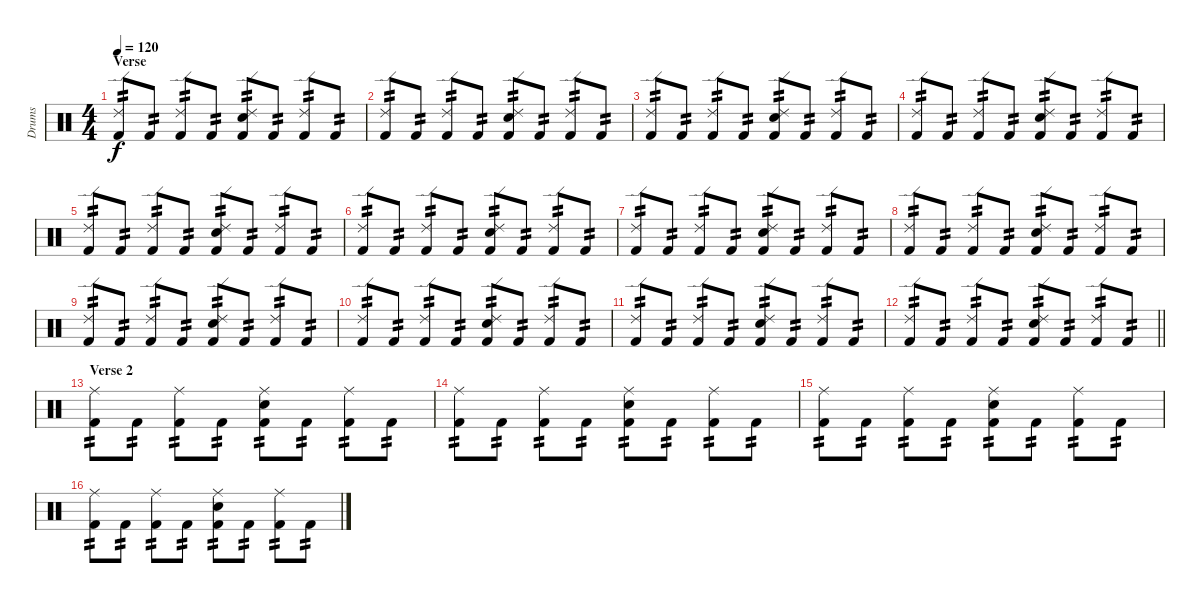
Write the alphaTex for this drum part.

\track ("Drums " "Drums ") {instrument percussion}
\staff {score}
\articulation defaults
\ts (4 4)
\section ("" "Verse")
\tempo 120
\clef neutral
\ks c
("Ride (edge) 2" "Kick (hit) 2").8{tp 2 dy f} "Kick (hit) 2".8{tp 2} ("Ride (edge) 2" "Kick (hit) 2").8{tp 2} "Kick (hit) 2".8{tp 2} ("Snare (hit) 2" "Ride (edge) 2" "Kick (hit) 2").8{tp 2} "Kick (hit) 2".8{tp 2} ("Ride (edge) 2" "Kick (hit) 2").8{tp 2} "Kick (hit) 2".8{tp 2} |
("Ride (edge) 2" "Kick (hit) 2").8{tp 2} "Kick (hit) 2".8{tp 2} ("Ride (edge) 2" "Kick (hit) 2").8{tp 2} "Kick (hit) 2".8{tp 2} ("Snare (hit) 2" "Ride (edge) 2" "Kick (hit) 2").8{tp 2} "Kick (hit) 2".8{tp 2} ("Ride (edge) 2" "Kick (hit) 2").8{tp 2} "Kick (hit) 2".8{tp 2} |
("Ride (edge) 2" "Kick (hit) 2").8{tp 2} "Kick (hit) 2".8{tp 2} ("Ride (edge) 2" "Kick (hit) 2").8{tp 2} "Kick (hit) 2".8{tp 2} ("Snare (hit) 2" "Ride (edge) 2" "Kick (hit) 2").8{tp 2} "Kick (hit) 2".8{tp 2} ("Ride (edge) 2" "Kick (hit) 2").8{tp 2} "Kick (hit) 2".8{tp 2} |
("Ride (edge) 2" "Kick (hit) 2").8{tp 2} "Kick (hit) 2".8{tp 2} ("Ride (edge) 2" "Kick (hit) 2").8{tp 2} "Kick (hit) 2".8{tp 2} ("Snare (hit) 2" "Ride (edge) 2" "Kick (hit) 2").8{tp 2} "Kick (hit) 2".8{tp 2} ("Ride (edge) 2" "Kick (hit) 2").8{tp 2} "Kick (hit) 2".8{tp 2} |
("Ride (edge) 2" "Kick (hit) 2").8{tp 2} "Kick (hit) 2".8{tp 2} ("Ride (edge) 2" "Kick (hit) 2").8{tp 2} "Kick (hit) 2".8{tp 2} ("Snare (hit) 2" "Ride (edge) 2" "Kick (hit) 2").8{tp 2} "Kick (hit) 2".8{tp 2} ("Ride (edge) 2" "Kick (hit) 2").8{tp 2} "Kick (hit) 2".8{tp 2} |
("Ride (edge) 2" "Kick (hit) 2").8{tp 2} "Kick (hit) 2".8{tp 2} ("Ride (edge) 2" "Kick (hit) 2").8{tp 2} "Kick (hit) 2".8{tp 2} ("Snare (hit) 2" "Ride (edge) 2" "Kick (hit) 2").8{tp 2} "Kick (hit) 2".8{tp 2} ("Ride (edge) 2" "Kick (hit) 2").8{tp 2} "Kick (hit) 2".8{tp 2} |
("Ride (edge) 2" "Kick (hit) 2").8{tp 2} "Kick (hit) 2".8{tp 2} ("Ride (edge) 2" "Kick (hit) 2").8{tp 2} "Kick (hit) 2".8{tp 2} ("Snare (hit) 2" "Ride (edge) 2" "Kick (hit) 2").8{tp 2} "Kick (hit) 2".8{tp 2} ("Ride (edge) 2" "Kick (hit) 2").8{tp 2} "Kick (hit) 2".8{tp 2} |
("Ride (edge) 2" "Kick (hit) 2").8{tp 2} "Kick (hit) 2".8{tp 2} ("Ride (edge) 2" "Kick (hit) 2").8{tp 2} "Kick (hit) 2".8{tp 2} ("Snare (hit) 2" "Ride (edge) 2" "Kick (hit) 2").8{tp 2} "Kick (hit) 2".8{tp 2} ("Ride (edge) 2" "Kick (hit) 2").8{tp 2} "Kick (hit) 2".8{tp 2} |
("Ride (edge) 2" "Kick (hit) 2").8{tp 2} "Kick (hit) 2".8{tp 2} ("Ride (edge) 2" "Kick (hit) 2").8{tp 2} "Kick (hit) 2".8{tp 2} ("Snare (hit) 2" "Ride (edge) 2" "Kick (hit) 2").8{tp 2} "Kick (hit) 2".8{tp 2} ("Ride (edge) 2" "Kick (hit) 2").8{tp 2} "Kick (hit) 2".8{tp 2} |
("Ride (edge) 2" "Kick (hit) 2").8{tp 2} "Kick (hit) 2".8{tp 2} ("Ride (edge) 2" "Kick (hit) 2").8{tp 2} "Kick (hit) 2".8{tp 2} ("Snare (hit) 2" "Ride (edge) 2" "Kick (hit) 2").8{tp 2} "Kick (hit) 2".8{tp 2} ("Ride (edge) 2" "Kick (hit) 2").8{tp 2} "Kick (hit) 2".8{tp 2} |
("Ride (edge) 2" "Kick (hit) 2").8{tp 2} "Kick (hit) 2".8{tp 2} ("Ride (edge) 2" "Kick (hit) 2").8{tp 2} "Kick (hit) 2".8{tp 2} ("Snare (hit) 2" "Ride (edge) 2" "Kick (hit) 2").8{tp 2} "Kick (hit) 2".8{tp 2} ("Ride (edge) 2" "Kick (hit) 2").8{tp 2} "Kick (hit) 2".8{tp 2} |
\barLineRight lightlight
("Ride (edge) 2" "Kick (hit) 2").8{tp 2} "Kick (hit) 2".8{tp 2} ("Ride (edge) 2" "Kick (hit) 2").8{tp 2} "Kick (hit) 2".8{tp 2} ("Snare (hit) 2" "Ride (edge) 2" "Kick (hit) 2").8{tp 2} "Kick (hit) 2".8{tp 2} ("Ride (edge) 2" "Kick (hit) 2").8{tp 2} "Kick (hit) 2".8{tp 2} |
\section ("" "Verse 2")
("Ride (middle)" "Kick (hit) 2").8{tp 2} "Kick (hit) 2".8{tp 2} ("Ride (middle)" "Kick (hit) 2").8{tp 2} "Kick (hit) 2".8{tp 2} ("Snare (hit) 2" "Ride (middle)" "Kick (hit) 2").8{tp 2} "Kick (hit) 2".8{tp 2} ("Ride (middle)" "Kick (hit) 2").8{tp 2} "Kick (hit) 2".8{tp 2} |
("Ride (middle)" "Kick (hit) 2").8{tp 2} "Kick (hit) 2".8{tp 2} ("Ride (middle)" "Kick (hit) 2").8{tp 2} "Kick (hit) 2".8{tp 2} ("Snare (hit) 2" "Ride (middle)" "Kick (hit) 2").8{tp 2} "Kick (hit) 2".8{tp 2} ("Ride (middle)" "Kick (hit) 2").8{tp 2} "Kick (hit) 2".8{tp 2} |
("Ride (middle)" "Kick (hit) 2").8{tp 2} "Kick (hit) 2".8{tp 2} ("Ride (middle)" "Kick (hit) 2").8{tp 2} "Kick (hit) 2".8{tp 2} ("Snare (hit) 2" "Ride (middle)" "Kick (hit) 2").8{tp 2} "Kick (hit) 2".8{tp 2} ("Ride (middle)" "Kick (hit) 2").8{tp 2} "Kick (hit) 2".8{tp 2} |
("Ride (middle)" "Kick (hit) 2").8{tp 2} "Kick (hit) 2".8{tp 2} ("Ride (middle)" "Kick (hit) 2").8{tp 2} "Kick (hit) 2".8{tp 2} ("Snare (hit) 2" "Ride (middle)" "Kick (hit) 2").8{tp 2} "Kick (hit) 2".8{tp 2} ("Ride (middle)" "Kick (hit) 2").8{tp 2} "Kick (hit) 2".8{tp 2}
